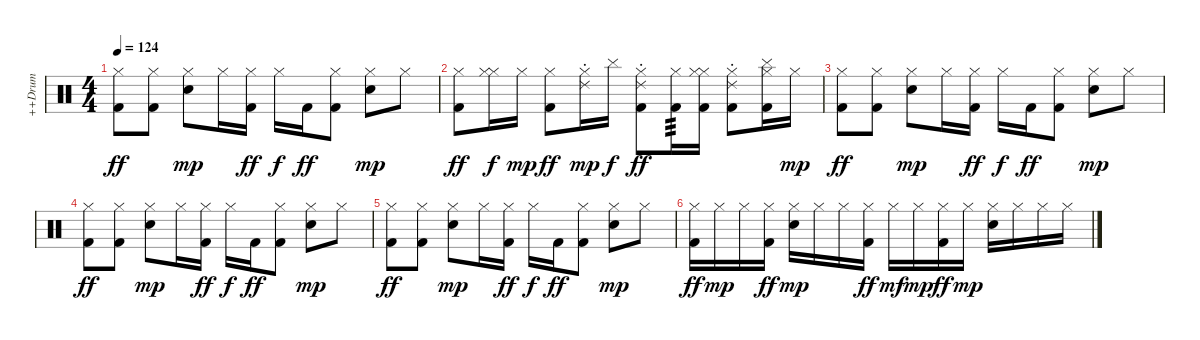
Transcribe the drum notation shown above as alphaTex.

\track ("++Drum" "++Drum") {instrument percussion}
\staff {score}
\articulation defaults
\ts (4 4)
\tempo 124
\clef neutral
\ks c
("Hi-Hat (closed)" "Kick (hit) 2").8{dy ff} ("Hi-Hat (closed)" "Kick (hit) 2").8 ("Hi-Hat (closed)" "Electric Snare (hit)").8{dy mp} "Hi-Hat (closed)".16 ("Hi-Hat (closed)" "Kick (hit) 2").16{dy ff} "Hi-Hat (closed)".16{dy f} "Kick (hit) 2".16{dy ff} ("Hi-Hat (closed)" "Kick (hit) 2").8 ("Hi-Hat (closed)" "Electric Snare (hit)").8{dy mp} "Hi-Hat (closed)".8 |
("Hi-Hat (closed)" "Kick (hit) 2").8{dy ff} ("Hi-Hat (closed)" "Hi-Hat (closed)").16{dy f} "Hi-Hat (closed)".16{dy mp} ("Hi-Hat (closed)" "Kick (hit) 2").8{dy ff} ("Hi-Hat (closed)" "Ride (choke) 2").16{dy mp} "Cymbal (hit)".16{dy f} ("Hi-Hat (closed)" "Ride (choke) 2" "Kick (hit) 2").8{dy ff} ("Hi-Hat (closed)" "Kick (hit) 2").16{tp 3} ("Hi-Hat (closed)" "Hi-Hat (closed)" "Kick (hit) 2").16 ("Hi-Hat (closed)" "Ride (choke) 2" "Kick (hit) 2").8 ("Hi-Hat (closed)" "Cymbal (hit)" "Kick (hit) 2").16 "Hi-Hat (closed)".16{dy mp} |
("Hi-Hat (closed)" "Kick (hit) 2").8{dy ff} ("Hi-Hat (closed)" "Kick (hit) 2").8 ("Hi-Hat (closed)" "Electric Snare (hit)").8{dy mp} "Hi-Hat (closed)".16 ("Hi-Hat (closed)" "Kick (hit) 2").16{dy ff} "Hi-Hat (closed)".16{dy f} "Kick (hit) 2".16{dy ff} ("Hi-Hat (closed)" "Kick (hit) 2").8 ("Hi-Hat (closed)" "Electric Snare (hit)").8{dy mp} "Hi-Hat (closed)".8 |
("Hi-Hat (closed)" "Kick (hit) 2").8{dy ff} ("Hi-Hat (closed)" "Kick (hit) 2").8 ("Hi-Hat (closed)" "Electric Snare (hit)").8{dy mp} "Hi-Hat (closed)".16 ("Hi-Hat (closed)" "Kick (hit) 2").16{dy ff} "Hi-Hat (closed)".16{dy f} "Kick (hit) 2".16{dy ff} ("Hi-Hat (closed)" "Kick (hit) 2").8 ("Hi-Hat (closed)" "Electric Snare (hit)").8{dy mp} "Hi-Hat (closed)".8 |
("Hi-Hat (closed)" "Kick (hit) 2").8{dy ff} ("Hi-Hat (closed)" "Kick (hit) 2").8 ("Hi-Hat (closed)" "Electric Snare (hit)").8{dy mp} "Hi-Hat (closed)".16 ("Hi-Hat (closed)" "Kick (hit) 2").16{dy ff} "Hi-Hat (closed)".16{dy f} "Kick (hit) 2".16{dy ff} ("Hi-Hat (closed)" "Kick (hit) 2").8 ("Hi-Hat (closed)" "Electric Snare (hit)").8{dy mp} "Hi-Hat (closed)".8 |
("Hi-Hat (closed)" "Kick (hit) 2").16{dy ff} "Hi-Hat (closed)".16{dy mp} "Hi-Hat (closed)".16 ("Hi-Hat (closed)" "Kick (hit) 2").16{dy ff} ("Hi-Hat (closed)" "Electric Snare (hit)").16{dy mp} "Hi-Hat (closed)".16 "Hi-Hat (closed)".16 ("Hi-Hat (closed)" "Kick (hit) 2").16{dy ff} "Hi-Hat (closed)".16{dy mf} "Hi-Hat (closed)".16{dy mp} ("Hi-Hat (closed)" "Kick (hit) 2").16{dy ff} "Hi-Hat (closed)".16{dy mp} ("Hi-Hat (closed)" "Electric Snare (hit)").16 "Hi-Hat (closed)".16 "Hi-Hat (closed)".16 "Hi-Hat (closed)".16
